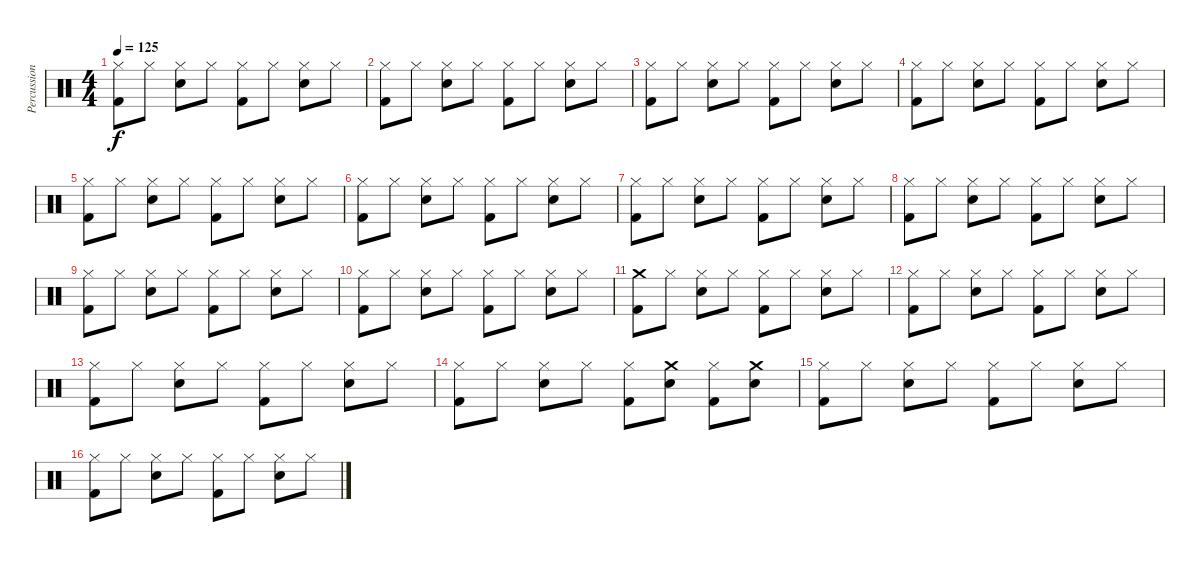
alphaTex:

\track ("Percussion" "Percussion") {instrument percussion}
\staff {score}
\articulation defaults
\ts (4 4)
\tempo 125
\clef neutral
\ks c
("Hi-Hat (closed)" "Kick (hit) 2").8{dy f} "Hi-Hat (closed)".8 ("Hi-Hat (closed)" "Snare (hit) 2").8 "Hi-Hat (closed)".8 ("Hi-Hat (closed)" "Kick (hit) 2").8 "Hi-Hat (closed)".8 ("Hi-Hat (closed)" "Snare (hit) 2").8 "Hi-Hat (closed)".8 |
("Hi-Hat (closed)" "Kick (hit) 2").8 "Hi-Hat (closed)".8 ("Hi-Hat (closed)" "Snare (hit) 2").8 "Hi-Hat (closed)".8 ("Hi-Hat (closed)" "Kick (hit) 2").8 "Hi-Hat (closed)".8 ("Hi-Hat (closed)" "Snare (hit) 2").8 "Hi-Hat (closed)".8 |
("Hi-Hat (closed)" "Kick (hit) 2").8 "Hi-Hat (closed)".8 ("Hi-Hat (closed)" "Snare (hit) 2").8 "Hi-Hat (closed)".8 ("Hi-Hat (closed)" "Kick (hit) 2").8 "Hi-Hat (closed)".8 ("Hi-Hat (closed)" "Snare (hit) 2").8 "Hi-Hat (closed)".8 |
("Hi-Hat (closed)" "Kick (hit) 2").8 "Hi-Hat (closed)".8 ("Hi-Hat (closed)" "Snare (hit) 2").8 "Hi-Hat (closed)".8 ("Hi-Hat (closed)" "Kick (hit) 2").8 "Hi-Hat (closed)".8 ("Hi-Hat (closed)" "Snare (hit) 2").8 "Hi-Hat (closed)".8 |
("Hi-Hat (closed)" "Kick (hit) 2").8 "Hi-Hat (closed)".8 ("Hi-Hat (closed)" "Snare (hit) 2").8 "Hi-Hat (closed)".8 ("Hi-Hat (closed)" "Kick (hit) 2").8 "Hi-Hat (closed)".8 ("Hi-Hat (closed)" "Snare (hit) 2").8 "Hi-Hat (closed)".8 |
("Hi-Hat (closed)" "Kick (hit) 2").8 "Hi-Hat (closed)".8 ("Hi-Hat (closed)" "Snare (hit) 2").8 "Hi-Hat (closed)".8 ("Hi-Hat (closed)" "Kick (hit) 2").8 "Hi-Hat (closed)".8 ("Hi-Hat (closed)" "Snare (hit) 2").8 "Hi-Hat (closed)".8 |
("Hi-Hat (closed)" "Kick (hit) 2").8 "Hi-Hat (closed)".8 ("Hi-Hat (closed)" "Snare (hit) 2").8 "Hi-Hat (closed)".8 ("Hi-Hat (closed)" "Kick (hit) 2").8 "Hi-Hat (closed)".8 ("Hi-Hat (closed)" "Snare (hit) 2").8 "Hi-Hat (closed)".8 |
("Hi-Hat (closed)" "Kick (hit) 2").8 "Hi-Hat (closed)".8 ("Hi-Hat (closed)" "Snare (hit) 2").8 "Hi-Hat (closed)".8 ("Hi-Hat (closed)" "Kick (hit) 2").8 "Hi-Hat (closed)".8 ("Hi-Hat (closed)" "Snare (hit) 2").8 "Hi-Hat (closed)".8 |
("Hi-Hat (closed)" "Kick (hit) 2").8 "Hi-Hat (closed)".8 ("Hi-Hat (closed)" "Snare (hit) 2").8 "Hi-Hat (closed)".8 ("Hi-Hat (closed)" "Kick (hit) 2").8 "Hi-Hat (closed)".8 ("Hi-Hat (closed)" "Snare (hit) 2").8 "Hi-Hat (closed)".8 |
("Hi-Hat (closed)" "Kick (hit) 2").8 "Hi-Hat (closed)".8 ("Hi-Hat (closed)" "Snare (hit) 2").8 "Hi-Hat (closed)".8 ("Hi-Hat (closed)" "Kick (hit) 2").8 "Hi-Hat (closed)".8 ("Hi-Hat (closed)" "Snare (hit) 2").8 "Hi-Hat (closed)".8 |
("Crash medium (hit)" "Kick (hit) 2").8 "Hi-Hat (closed)".8 ("Hi-Hat (closed)" "Snare (hit) 2").8 "Hi-Hat (closed)".8 ("Hi-Hat (closed)" "Kick (hit) 2").8 "Hi-Hat (closed)".8 ("Hi-Hat (closed)" "Snare (hit) 2").8 "Hi-Hat (closed)".8 |
("Hi-Hat (closed)" "Kick (hit) 2").8 "Hi-Hat (closed)".8 ("Hi-Hat (closed)" "Snare (hit) 2").8 "Hi-Hat (closed)".8 ("Hi-Hat (closed)" "Kick (hit) 2").8 "Hi-Hat (closed)".8 ("Hi-Hat (closed)" "Snare (hit) 2").8 "Hi-Hat (closed)".8 |
("Hi-Hat (closed)" "Kick (hit) 2").8 "Hi-Hat (closed)".8 ("Hi-Hat (closed)" "Snare (hit) 2").8 "Hi-Hat (closed)".8 ("Hi-Hat (closed)" "Kick (hit) 2").8 "Hi-Hat (closed)".8 ("Hi-Hat (closed)" "Snare (hit) 2").8 "Hi-Hat (closed)".8 |
("Hi-Hat (closed)" "Kick (hit) 2").8 "Hi-Hat (closed)".8 ("Hi-Hat (closed)" "Snare (hit) 2").8 "Hi-Hat (closed)".8 ("Hi-Hat (closed)" "Kick (hit) 2").8 ("Crash medium (hit)" "Snare (hit) 2").8 ("Hi-Hat (closed)" "Kick (hit) 2").8 ("Crash medium (hit)" "Snare (hit) 2").8 |
("Hi-Hat (closed)" "Kick (hit) 2").8 "Hi-Hat (closed)".8 ("Hi-Hat (closed)" "Snare (hit) 2").8 "Hi-Hat (closed)".8 ("Hi-Hat (closed)" "Kick (hit) 2").8 "Hi-Hat (closed)".8 ("Hi-Hat (closed)" "Snare (hit) 2").8 "Hi-Hat (closed)".8 |
("Hi-Hat (closed)" "Kick (hit) 2").8 "Hi-Hat (closed)".8 ("Hi-Hat (closed)" "Snare (hit) 2").8 "Hi-Hat (closed)".8 ("Hi-Hat (closed)" "Kick (hit) 2").8 "Hi-Hat (closed)".8 ("Hi-Hat (closed)" "Snare (hit) 2").8 "Hi-Hat (closed)".8
